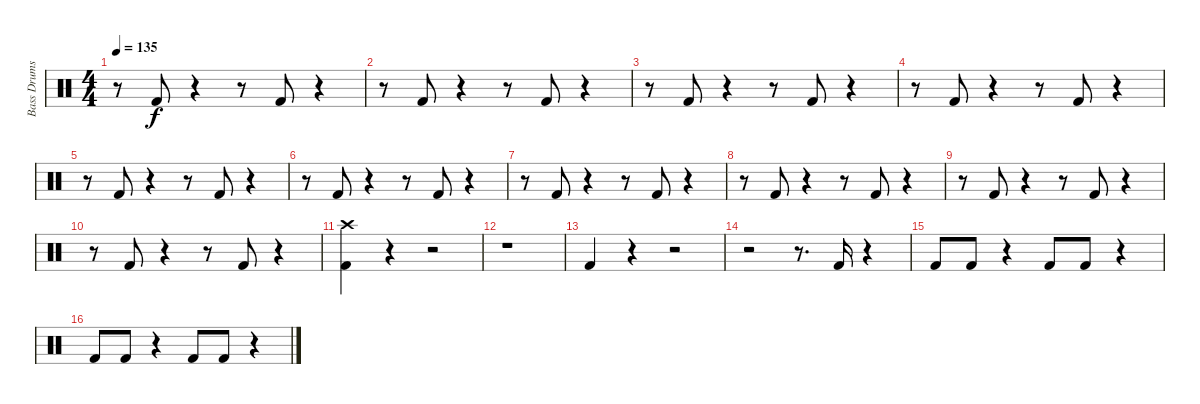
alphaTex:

\track ("Bass Drums" "Bass Drums") {instrument percussion}
\staff {score}
\articulation defaults
\ts (4 4)
\tempo 135
\clef neutral
\ks c
r.8{dy f} "Kick (hit) 2".8 r.4 r.8 "Kick (hit) 2".8 r.4 |
r.8 "Kick (hit) 2".8 r.4 r.8 "Kick (hit) 2".8 r.4 |
r.8 "Kick (hit) 2".8 r.4 r.8 "Kick (hit) 2".8 r.4 |
r.8 "Kick (hit) 2".8 r.4 r.8 "Kick (hit) 2".8 r.4 |
r.8 "Kick (hit) 2".8 r.4 r.8 "Kick (hit) 2".8 r.4 |
r.8 "Kick (hit) 2".8 r.4 r.8 "Kick (hit) 2".8 r.4 |
r.8 "Kick (hit) 2".8 r.4 r.8 "Kick (hit) 2".8 r.4 |
r.8 "Kick (hit) 2".8 r.4 r.8 "Kick (hit) 2".8 r.4 |
r.8 "Kick (hit) 2".8 r.4 r.8 "Kick (hit) 2".8 r.4 |
r.8 "Kick (hit) 2".8 r.4 r.8 "Kick (hit) 2".8 r.4 |
("Crash high (hit)" "Kick (hit) 2").4 r.4 r.2 |
r.1 |
"Kick (hit) 2".4 r.4 r.2 |
r.2 r.8{d} "Kick (hit) 2".16 r.4 |
"Kick (hit) 2".8 "Kick (hit) 2".8 r.4 "Kick (hit) 2".8 "Kick (hit) 2".8 r.4 |
"Kick (hit) 2".8 "Kick (hit) 2".8 r.4 "Kick (hit) 2".8 "Kick (hit) 2".8 r.4
